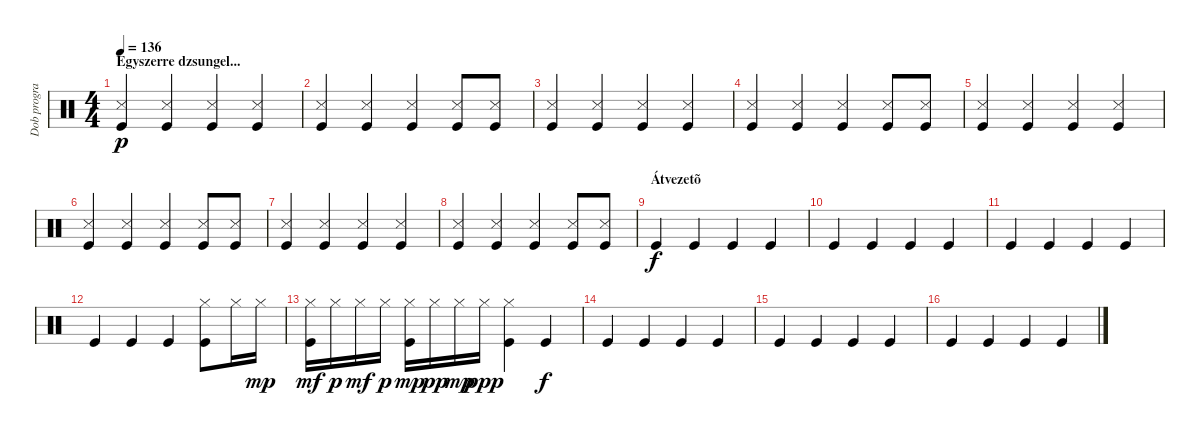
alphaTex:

\track ("Dob program" "Dob progra") {instrument percussion}
\staff {score}
\articulation defaults
\ts (4 4)
\section ("" "Egyszerre dzsungel...")
\tempo 136
\clef neutral
\ks c
("Snare (side stick) 3" "Kick (hit)").4{dy p} ("Snare (side stick) 3" "Kick (hit)").4 ("Snare (side stick) 3" "Kick (hit)").4 ("Snare (side stick) 3" "Kick (hit)").4 |
("Snare (side stick) 3" "Kick (hit)").4 ("Snare (side stick) 3" "Kick (hit)").4 ("Snare (side stick) 3" "Kick (hit)").4 ("Snare (side stick) 3" "Kick (hit)").8 ("Snare (side stick) 3" "Kick (hit)").8 |
("Snare (side stick) 3" "Kick (hit)").4 ("Snare (side stick) 3" "Kick (hit)").4 ("Snare (side stick) 3" "Kick (hit)").4 ("Snare (side stick) 3" "Kick (hit)").4 |
("Snare (side stick) 3" "Kick (hit)").4 ("Snare (side stick) 3" "Kick (hit)").4 ("Snare (side stick) 3" "Kick (hit)").4 ("Snare (side stick) 3" "Kick (hit)").8 ("Snare (side stick) 3" "Kick (hit)").8 |
("Snare (side stick) 3" "Kick (hit)").4 ("Snare (side stick) 3" "Kick (hit)").4 ("Snare (side stick) 3" "Kick (hit)").4 ("Snare (side stick) 3" "Kick (hit)").4 |
("Snare (side stick) 3" "Kick (hit)").4 ("Snare (side stick) 3" "Kick (hit)").4 ("Snare (side stick) 3" "Kick (hit)").4 ("Snare (side stick) 3" "Kick (hit)").8 ("Snare (side stick) 3" "Kick (hit)").8 |
("Snare (side stick) 3" "Kick (hit)").4 ("Snare (side stick) 3" "Kick (hit)").4 ("Snare (side stick) 3" "Kick (hit)").4 ("Snare (side stick) 3" "Kick (hit)").4 |
("Snare (side stick) 3" "Kick (hit)").4 ("Snare (side stick) 3" "Kick (hit)").4 ("Snare (side stick) 3" "Kick (hit)").4 ("Snare (side stick) 3" "Kick (hit)").8 ("Snare (side stick) 3" "Kick (hit)").8 |
\section ("" "Átvezetõ ")
"Kick (hit)".4{dy f} "Kick (hit)".4 "Kick (hit)".4 "Kick (hit)".4 |
"Kick (hit)".4 "Kick (hit)".4 "Kick (hit)".4 "Kick (hit)".4 |
"Kick (hit)".4 "Kick (hit)".4 "Kick (hit)".4 "Kick (hit)".4 |
"Kick (hit)".4 "Kick (hit)".4 "Kick (hit)".4 ("Hi-Hat (closed)" "Kick (hit)").8 "Hi-Hat (closed)".16 "Hi-Hat (closed)".16{dy mp} |
("Hi-Hat (closed)" "Kick (hit)").16{dy mf} "Hi-Hat (closed)".16{dy p} "Hi-Hat (closed)".16{dy mf} "Hi-Hat (closed)".16{dy p} ("Hi-Hat (closed)" "Kick (hit)").16{dy mp} "Hi-Hat (closed)".16{dy pp} "Hi-Hat (closed)".16{dy mp} "Hi-Hat (closed)".16{dy ppp} ("Hi-Hat (closed)" "Kick (hit)").4 "Kick (hit)".4{dy f} |
"Kick (hit)".4 "Kick (hit)".4 "Kick (hit)".4 "Kick (hit)".4 |
"Kick (hit)".4 "Kick (hit)".4 "Kick (hit)".4 "Kick (hit)".4 |
"Kick (hit)".4 "Kick (hit)".4 "Kick (hit)".4 "Kick (hit)".4
